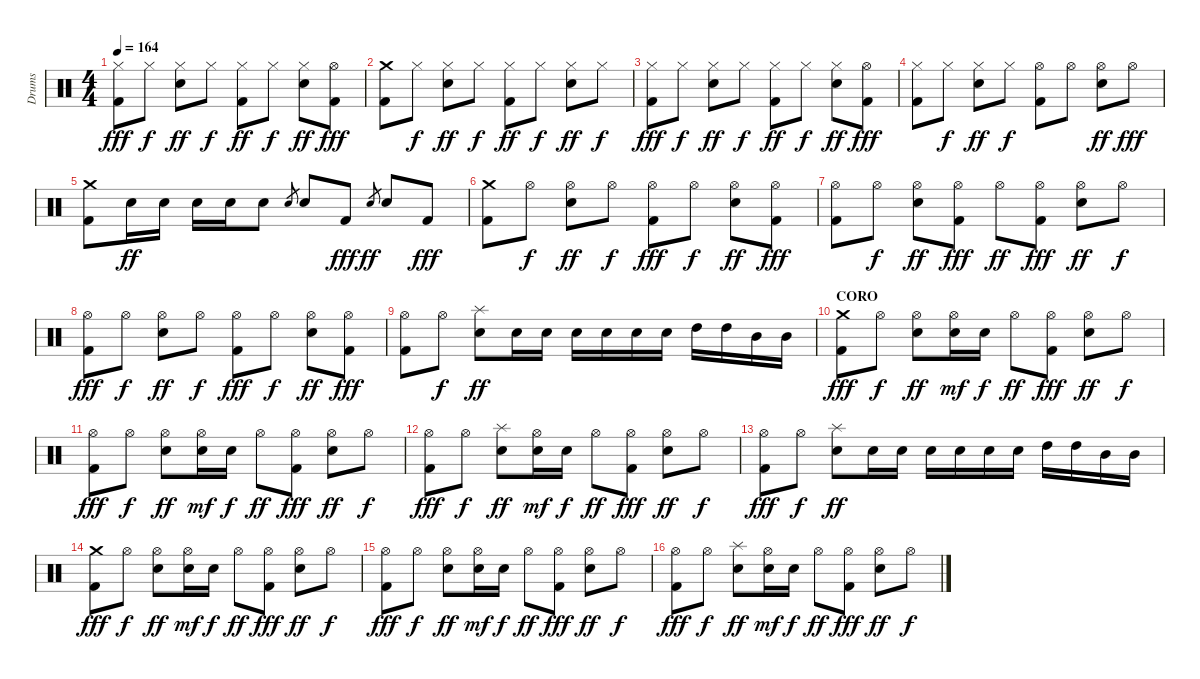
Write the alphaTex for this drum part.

\track ("Drums" "Drums") {instrument percussion}
\staff {score}
\articulation defaults
\ts (4 4)
\tempo 164
\clef neutral
\ks c
("Hi-Hat (closed)" "Kick (hit) 2").8{dy fff} "Hi-Hat (closed)".8{dy f} ("Hi-Hat (closed)" "Snare (hit) 2").8{dy ff} "Hi-Hat (closed)".8{dy f} ("Hi-Hat (closed)" "Kick (hit) 2").8{dy ff} "Hi-Hat (closed)".8{dy f} ("Hi-Hat (closed)" "Snare (hit) 2").8{dy ff} ("Hi-Hat (open)" "Kick (hit) 2").8{dy fff} |
("Crash medium (hit)" "Kick (hit) 2").8 "Hi-Hat (closed)".8{dy f} ("Hi-Hat (closed)" "Snare (hit) 2").8{dy ff} "Hi-Hat (closed)".8{dy f} ("Hi-Hat (closed)" "Kick (hit) 2").8{dy ff} "Hi-Hat (closed)".8{dy f} ("Hi-Hat (closed)" "Snare (hit) 2").8{dy ff} "Hi-Hat (closed)".8{dy f} |
("Hi-Hat (closed)" "Kick (hit) 2").8{dy fff} "Hi-Hat (closed)".8{dy f} ("Hi-Hat (closed)" "Snare (hit) 2").8{dy ff} "Hi-Hat (closed)".8{dy f} ("Hi-Hat (closed)" "Kick (hit) 2").8{dy ff} "Hi-Hat (closed)".8{dy f} ("Hi-Hat (closed)" "Snare (hit) 2").8{dy ff} ("Hi-Hat (open)" "Kick (hit) 2").8{dy fff} |
("Hi-Hat (closed)" "Kick (hit) 2").8 "Hi-Hat (closed)".8{dy f} ("Hi-Hat (closed)" "Snare (hit) 2").8{dy ff} "Hi-Hat (closed)".8{dy f} ("Hi-Hat (open)" "Kick (hit) 2").8 "Hi-Hat (open)".8 ("Hi-Hat (open)" "Snare (hit) 2").8{dy ff} "Hi-Hat (open)".8{dy fff} |
("Crash medium (hit)" "Kick (hit) 2").8 "Snare (hit) 2".16{dy ff} "Snare (hit) 2".16 "Snare (hit) 2".16 "Snare (hit) 2".16 "Snare (hit) 2".8 "Snare (hit) 2".8{gr} "Snare (hit) 2".8 "Kick (hit) 2".8{dy fff} "Snare (hit) 2".8{gr dy ff} "Snare (hit) 2".8 "Kick (hit) 2".8{dy fff} |
("Crash medium (hit)" "Kick (hit) 2").8 "Hi-Hat (open)".8{dy f} ("Hi-Hat (open)" "Snare (hit) 2").8{dy ff} "Hi-Hat (open)".8{dy f} ("Hi-Hat (open)" "Kick (hit) 2").8{dy fff} "Hi-Hat (open)".8{dy f} ("Hi-Hat (open)" "Snare (hit) 2").8{dy ff} ("Hi-Hat (open)" "Kick (hit) 2").8{dy fff} |
("Hi-Hat (open)" "Kick (hit) 2").8 "Hi-Hat (open)".8{dy f} ("Hi-Hat (open)" "Snare (hit) 2").8{dy ff} ("Hi-Hat (open)" "Kick (hit) 2").8{dy fff} "Hi-Hat (open)".8{dy ff} ("Hi-Hat (open)" "Kick (hit) 2").8{dy fff} ("Hi-Hat (open)" "Snare (hit) 2").8{dy ff} "Hi-Hat (open)".8{dy f} |
("Hi-Hat (open)" "Kick (hit) 2").8{dy fff} "Hi-Hat (open)".8{dy f} ("Hi-Hat (open)" "Snare (hit) 2").8{dy ff} "Hi-Hat (open)".8{dy f} ("Hi-Hat (open)" "Kick (hit) 2").8{dy fff} "Hi-Hat (open)".8{dy f} ("Hi-Hat (open)" "Snare (hit) 2").8{dy ff} ("Hi-Hat (open)" "Kick (hit) 2").8{dy fff} |
("Hi-Hat (open)" "Kick (hit) 2").8 "Hi-Hat (open)".8{dy f} ("Splash (hit)" "Snare (hit) 2").8{dy ff} "Snare (hit) 2".16 "Snare (hit) 2".16 "Snare (hit) 2".16 "Snare (hit) 2".16 "Snare (hit) 2".16 "Snare (hit) 2".16 "High Tom (hit)".16 "High Tom (hit)".16 "Mid Tom (hit)".16 "Mid Tom (hit)".16 |
\section ("" "CORO")
("Crash medium (hit)" "Kick (hit) 2").8{dy fff} "Hi-Hat (open)".8{dy f} ("Hi-Hat (open)" "Snare (hit) 2").8{dy ff} ("Hi-Hat (open)" "Snare (hit) 2").16{dy mf} "Snare (hit) 2".16{dy f} "Hi-Hat (open)".8{dy ff} ("Hi-Hat (open)" "Kick (hit) 2").8{dy fff} ("Hi-Hat (open)" "Snare (hit) 2").8{dy ff} "Hi-Hat (open)".8{dy f} |
("Hi-Hat (open)" "Kick (hit) 2").8{dy fff} "Hi-Hat (open)".8{dy f} ("Hi-Hat (open)" "Snare (hit) 2").8{dy ff} ("Hi-Hat (open)" "Snare (hit) 2").16{dy mf} "Snare (hit) 2".16{dy f} "Hi-Hat (open)".8{dy ff} ("Hi-Hat (open)" "Kick (hit) 2").8{dy fff} ("Hi-Hat (open)" "Snare (hit) 2").8{dy ff} "Hi-Hat (open)".8{dy f} |
("Hi-Hat (open)" "Kick (hit) 2").8{dy fff} "Hi-Hat (open)".8{dy f} ("Splash (hit)" "Snare (hit) 2").8{dy ff} ("Hi-Hat (open)" "Snare (hit) 2").16{dy mf} "Snare (hit) 2".16{dy f} "Hi-Hat (open)".8{dy ff} ("Hi-Hat (open)" "Kick (hit) 2").8{dy fff} ("Hi-Hat (open)" "Snare (hit) 2").8{dy ff} "Hi-Hat (open)".8{dy f} |
("Hi-Hat (open)" "Kick (hit) 2").8{dy fff} "Hi-Hat (open)".8{dy f} ("Splash (hit)" "Snare (hit) 2").8{dy ff} "Snare (hit) 2".16 "Snare (hit) 2".16 "Snare (hit) 2".16 "Snare (hit) 2".16 "Snare (hit) 2".16 "Snare (hit) 2".16 "High Tom (hit)".16 "High Tom (hit)".16 "Mid Tom (hit)".16 "Mid Tom (hit)".16 |
("Crash medium (hit)" "Kick (hit) 2").8{dy fff} "Hi-Hat (open)".8{dy f} ("Hi-Hat (open)" "Snare (hit) 2").8{dy ff} ("Hi-Hat (open)" "Snare (hit) 2").16{dy mf} "Snare (hit) 2".16{dy f} "Hi-Hat (open)".8{dy ff} ("Hi-Hat (open)" "Kick (hit) 2").8{dy fff} ("Hi-Hat (open)" "Snare (hit) 2").8{dy ff} "Hi-Hat (open)".8{dy f} |
("Hi-Hat (open)" "Kick (hit) 2").8{dy fff} "Hi-Hat (open)".8{dy f} ("Hi-Hat (open)" "Snare (hit) 2").8{dy ff} ("Hi-Hat (open)" "Snare (hit) 2").16{dy mf} "Snare (hit) 2".16{dy f} "Hi-Hat (open)".8{dy ff} ("Hi-Hat (open)" "Kick (hit) 2").8{dy fff} ("Hi-Hat (open)" "Snare (hit) 2").8{dy ff} "Hi-Hat (open)".8{dy f} |
("Hi-Hat (open)" "Kick (hit) 2").8{dy fff} "Hi-Hat (open)".8{dy f} ("Splash (hit)" "Snare (hit) 2").8{dy ff} ("Hi-Hat (open)" "Snare (hit) 2").16{dy mf} "Snare (hit) 2".16{dy f} "Hi-Hat (open)".8{dy ff} ("Hi-Hat (open)" "Kick (hit) 2").8{dy fff} ("Hi-Hat (open)" "Snare (hit) 2").8{dy ff} "Hi-Hat (open)".8{dy f}
